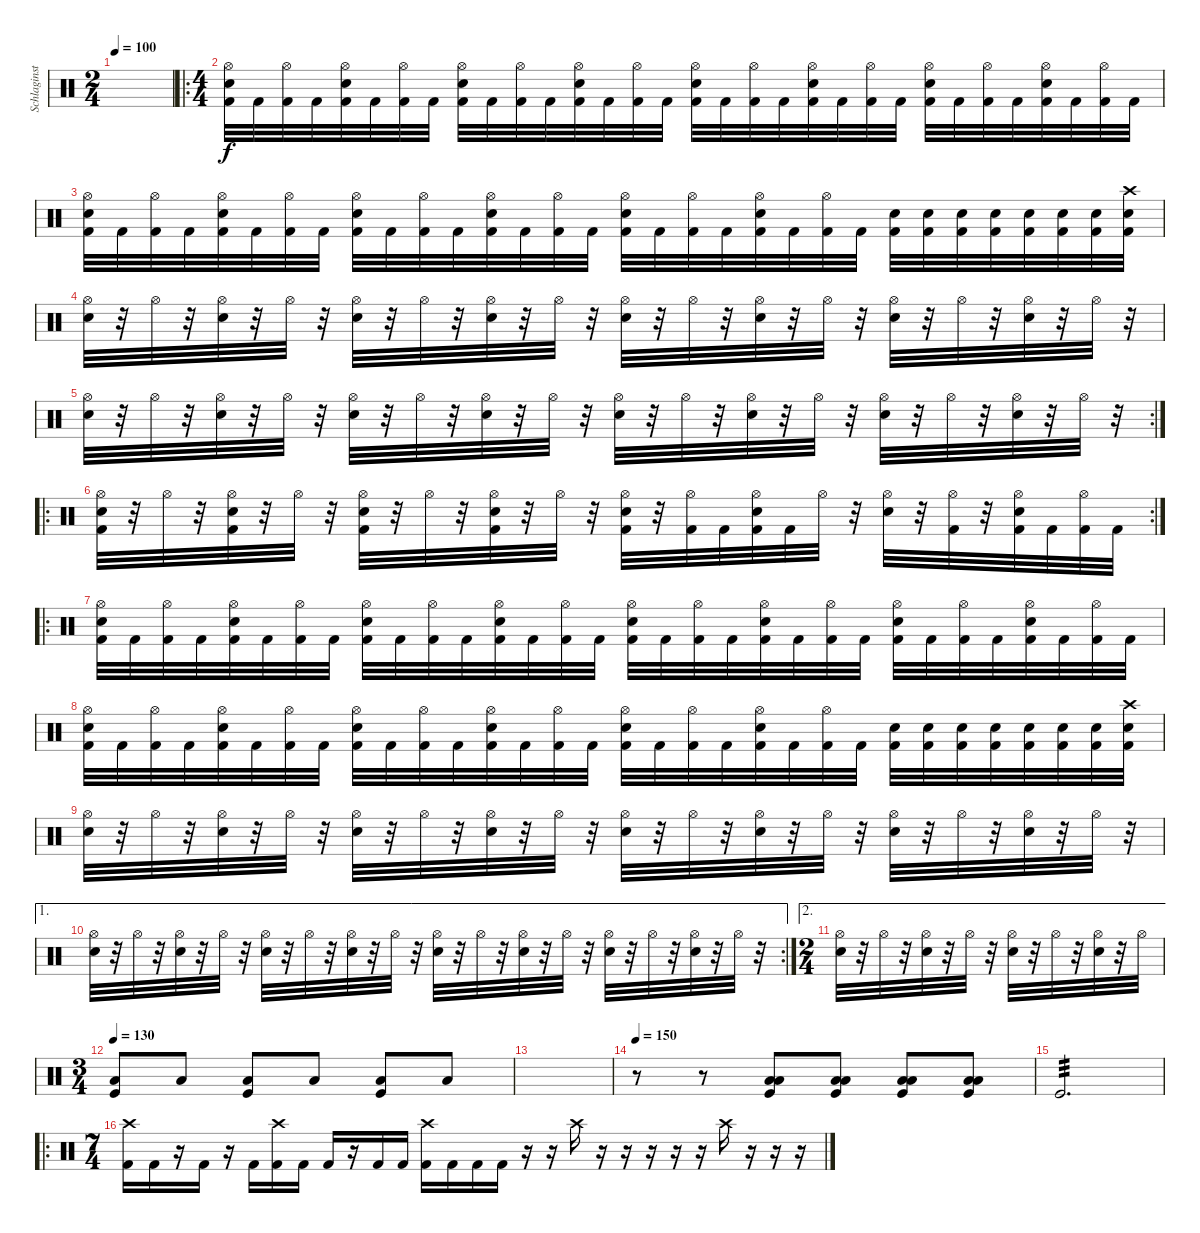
\track ("Schlaginstrumente - Auswahl" "Schlaginst") {instrument percussion}
\staff {score}
\articulation defaults
\ts (2 4)
\tempo 100
\clef neutral
\ks c
|
\ro
\ts (4 4)
("Hi-Hat (open)" "Snare (hit) 2" "Kick (hit) 2").32 "Kick (hit) 2".32 ("Hi-Hat (open)" "Kick (hit) 2").32 "Kick (hit) 2".32 ("Hi-Hat (open)" "Snare (hit) 2" "Kick (hit) 2").32 "Kick (hit) 2".32 ("Hi-Hat (open)" "Kick (hit) 2").32 "Kick (hit) 2".32 ("Hi-Hat (open)" "Snare (hit) 2" "Kick (hit) 2").32 "Kick (hit) 2".32 ("Hi-Hat (open)" "Kick (hit) 2").32 "Kick (hit) 2".32 ("Hi-Hat (open)" "Snare (hit) 2" "Kick (hit) 2").32 "Kick (hit) 2".32 ("Hi-Hat (open)" "Kick (hit) 2").32 "Kick (hit) 2".32 ("Hi-Hat (open)" "Snare (hit) 2" "Kick (hit) 2").32 "Kick (hit) 2".32 ("Hi-Hat (open)" "Kick (hit) 2").32 "Kick (hit) 2".32 ("Hi-Hat (open)" "Snare (hit) 2" "Kick (hit) 2").32 "Kick (hit) 2".32 ("Hi-Hat (open)" "Kick (hit) 2").32 "Kick (hit) 2".32 ("Hi-Hat (open)" "Snare (hit) 2" "Kick (hit) 2").32 "Kick (hit) 2".32 ("Hi-Hat (open)" "Kick (hit) 2").32 "Kick (hit) 2".32 ("Hi-Hat (open)" "Snare (hit) 2" "Kick (hit) 2").32 "Kick (hit) 2".32 ("Hi-Hat (open)" "Kick (hit) 2").32 "Kick (hit) 2".32 |
("Hi-Hat (open)" "Snare (hit) 2" "Kick (hit) 2").32 "Kick (hit) 2".32 ("Hi-Hat (open)" "Kick (hit) 2").32 "Kick (hit) 2".32 ("Hi-Hat (open)" "Snare (hit) 2" "Kick (hit) 2").32 "Kick (hit) 2".32 ("Hi-Hat (open)" "Kick (hit) 2").32 "Kick (hit) 2".32 ("Hi-Hat (open)" "Snare (hit) 2" "Kick (hit) 2").32 "Kick (hit) 2".32 ("Hi-Hat (open)" "Kick (hit) 2").32 "Kick (hit) 2".32 ("Hi-Hat (open)" "Snare (hit) 2" "Kick (hit) 2").32 "Kick (hit) 2".32 ("Hi-Hat (open)" "Kick (hit) 2").32 "Kick (hit) 2".32 ("Hi-Hat (open)" "Snare (hit) 2" "Kick (hit) 2").32 "Kick (hit) 2".32 ("Hi-Hat (open)" "Kick (hit) 2").32 "Kick (hit) 2".32 ("Hi-Hat (open)" "Snare (hit) 2" "Kick (hit) 2").32 "Kick (hit) 2".32 ("Hi-Hat (open)" "Kick (hit) 2").32 "Kick (hit) 2".32 ("Snare (hit) 2" "Kick (hit) 2").32 ("Snare (hit) 2" "Kick (hit) 2").32 ("Snare (hit) 2" "Kick (hit) 2").32 ("Snare (hit) 2" "Kick (hit) 2").32 ("Snare (hit) 2" "Kick (hit) 2").32 ("Snare (hit) 2" "Kick (hit) 2").32 ("Snare (hit) 2" "Kick (hit) 2").32 ("Crash high (hit)" "Snare (hit) 2" "Kick (hit) 2").32 |
("Hi-Hat (open)" "Snare (hit) 2").32 r.32 "Hi-Hat (open)".32 r.32 ("Hi-Hat (open)" "Snare (hit) 2").32 r.32 "Hi-Hat (open)".32 r.32 ("Hi-Hat (open)" "Snare (hit) 2").32 r.32 "Hi-Hat (open)".32 r.32 ("Hi-Hat (open)" "Snare (hit) 2").32 r.32 "Hi-Hat (open)".32 r.32 ("Hi-Hat (open)" "Snare (hit) 2").32 r.32 "Hi-Hat (open)".32 r.32 ("Hi-Hat (open)" "Snare (hit) 2").32 r.32 "Hi-Hat (open)".32 r.32 ("Hi-Hat (open)" "Snare (hit) 2").32 r.32 "Hi-Hat (open)".32 r.32 ("Hi-Hat (open)" "Snare (hit) 2").32 r.32 "Hi-Hat (open)".32 r.32 |
\rc 2
("Hi-Hat (open)" "Snare (hit) 2").32 r.32 "Hi-Hat (open)".32 r.32 ("Hi-Hat (open)" "Snare (hit) 2").32 r.32 "Hi-Hat (open)".32 r.32 ("Hi-Hat (open)" "Snare (hit) 2").32 r.32 "Hi-Hat (open)".32 r.32 ("Hi-Hat (open)" "Snare (hit) 2").32 r.32 "Hi-Hat (open)".32 r.32 ("Hi-Hat (open)" "Snare (hit) 2").32 r.32 "Hi-Hat (open)".32 r.32 ("Hi-Hat (open)" "Snare (hit) 2").32 r.32 "Hi-Hat (open)".32 r.32 ("Hi-Hat (open)" "Snare (hit) 2").32 r.32 "Hi-Hat (open)".32 r.32 ("Hi-Hat (open)" "Snare (hit) 2").32 r.32 "Hi-Hat (open)".32 r.32 |
\ro
\rc 2
("Hi-Hat (open)" "Snare (hit) 2" "Kick (hit) 2").32 r.32 "Hi-Hat (open)".32 r.32 ("Hi-Hat (open)" "Snare (hit) 2" "Kick (hit) 2").32 r.32 "Hi-Hat (open)".32 r.32 ("Hi-Hat (open)" "Snare (hit) 2" "Kick (hit) 2").32 r.32 "Hi-Hat (open)".32 r.32 ("Hi-Hat (open)" "Snare (hit) 2" "Kick (hit) 2").32 r.32 "Hi-Hat (open)".32 r.32 ("Hi-Hat (open)" "Snare (hit) 2" "Kick (hit) 2").32 r.32 ("Hi-Hat (open)" "Kick (hit) 2").32 "Kick (hit) 2".32 ("Hi-Hat (open)" "Snare (hit) 2" "Kick (hit) 2").32 "Kick (hit) 2".32 "Hi-Hat (open)".32 r.32 ("Hi-Hat (open)" "Snare (hit) 2").32 r.32 ("Hi-Hat (open)" "Kick (hit) 2").32 r.32 ("Hi-Hat (open)" "Snare (hit) 2" "Kick (hit) 2").32 "Kick (hit) 2".32 ("Hi-Hat (open)" "Kick (hit) 2").32 "Kick (hit) 2".32 |
\ro
("Hi-Hat (open)" "Snare (hit) 2" "Kick (hit) 2").32 "Kick (hit) 2".32 ("Hi-Hat (open)" "Kick (hit) 2").32 "Kick (hit) 2".32 ("Hi-Hat (open)" "Snare (hit) 2" "Kick (hit) 2").32 "Kick (hit) 2".32 ("Hi-Hat (open)" "Kick (hit) 2").32 "Kick (hit) 2".32 ("Hi-Hat (open)" "Snare (hit) 2" "Kick (hit) 2").32 "Kick (hit) 2".32 ("Hi-Hat (open)" "Kick (hit) 2").32 "Kick (hit) 2".32 ("Hi-Hat (open)" "Snare (hit) 2" "Kick (hit) 2").32 "Kick (hit) 2".32 ("Hi-Hat (open)" "Kick (hit) 2").32 "Kick (hit) 2".32 ("Hi-Hat (open)" "Snare (hit) 2" "Kick (hit) 2").32 "Kick (hit) 2".32 ("Hi-Hat (open)" "Kick (hit) 2").32 "Kick (hit) 2".32 ("Hi-Hat (open)" "Snare (hit) 2" "Kick (hit) 2").32 "Kick (hit) 2".32 ("Hi-Hat (open)" "Kick (hit) 2").32 "Kick (hit) 2".32 ("Hi-Hat (open)" "Snare (hit) 2" "Kick (hit) 2").32 "Kick (hit) 2".32 ("Hi-Hat (open)" "Kick (hit) 2").32 "Kick (hit) 2".32 ("Hi-Hat (open)" "Snare (hit) 2" "Kick (hit) 2").32 "Kick (hit) 2".32 ("Hi-Hat (open)" "Kick (hit) 2").32 "Kick (hit) 2".32 |
("Hi-Hat (open)" "Snare (hit) 2" "Kick (hit) 2").32 "Kick (hit) 2".32 ("Hi-Hat (open)" "Kick (hit) 2").32 "Kick (hit) 2".32 ("Hi-Hat (open)" "Snare (hit) 2" "Kick (hit) 2").32 "Kick (hit) 2".32 ("Hi-Hat (open)" "Kick (hit) 2").32 "Kick (hit) 2".32 ("Hi-Hat (open)" "Snare (hit) 2" "Kick (hit) 2").32 "Kick (hit) 2".32 ("Hi-Hat (open)" "Kick (hit) 2").32 "Kick (hit) 2".32 ("Hi-Hat (open)" "Snare (hit) 2" "Kick (hit) 2").32 "Kick (hit) 2".32 ("Hi-Hat (open)" "Kick (hit) 2").32 "Kick (hit) 2".32 ("Hi-Hat (open)" "Snare (hit) 2" "Kick (hit) 2").32 "Kick (hit) 2".32 ("Hi-Hat (open)" "Kick (hit) 2").32 "Kick (hit) 2".32 ("Hi-Hat (open)" "Snare (hit) 2" "Kick (hit) 2").32 "Kick (hit) 2".32 ("Hi-Hat (open)" "Kick (hit) 2").32 "Kick (hit) 2".32 ("Snare (hit) 2" "Kick (hit) 2").32 ("Snare (hit) 2" "Kick (hit) 2").32 ("Snare (hit) 2" "Kick (hit) 2").32 ("Snare (hit) 2" "Kick (hit) 2").32 ("Snare (hit) 2" "Kick (hit) 2").32 ("Snare (hit) 2" "Kick (hit) 2").32 ("Snare (hit) 2" "Kick (hit) 2").32 ("Crash high (hit)" "Snare (hit) 2" "Kick (hit) 2").32 |
("Hi-Hat (open)" "Snare (hit) 2").32 r.32 "Hi-Hat (open)".32 r.32 ("Hi-Hat (open)" "Snare (hit) 2").32 r.32 "Hi-Hat (open)".32 r.32 ("Hi-Hat (open)" "Snare (hit) 2").32 r.32 "Hi-Hat (open)".32 r.32 ("Hi-Hat (open)" "Snare (hit) 2").32 r.32 "Hi-Hat (open)".32 r.32 ("Hi-Hat (open)" "Snare (hit) 2").32 r.32 "Hi-Hat (open)".32 r.32 ("Hi-Hat (open)" "Snare (hit) 2").32 r.32 "Hi-Hat (open)".32 r.32 ("Hi-Hat (open)" "Snare (hit) 2").32 r.32 "Hi-Hat (open)".32 r.32 ("Hi-Hat (open)" "Snare (hit) 2").32 r.32 "Hi-Hat (open)".32 r.32 |
\ae 1
\rc 2
("Hi-Hat (open)" "Snare (hit) 2").32 r.32 "Hi-Hat (open)".32 r.32 ("Hi-Hat (open)" "Snare (hit) 2").32 r.32 "Hi-Hat (open)".32 r.32 ("Hi-Hat (open)" "Snare (hit) 2").32 r.32 "Hi-Hat (open)".32 r.32 ("Hi-Hat (open)" "Snare (hit) 2").32 r.32 "Hi-Hat (open)".32 r.32 ("Hi-Hat (open)" "Snare (hit) 2").32 r.32 "Hi-Hat (open)".32 r.32 ("Hi-Hat (open)" "Snare (hit) 2").32 r.32 "Hi-Hat (open)".32 r.32 ("Hi-Hat (open)" "Snare (hit) 2").32 r.32 "Hi-Hat (open)".32 r.32 ("Hi-Hat (open)" "Snare (hit) 2").32 r.32 "Hi-Hat (open)".32 r.32 |
\ae 2
\ts (2 4)
("Hi-Hat (open)" "Snare (hit) 2").32 r.32 "Hi-Hat (open)".32 r.32 ("Hi-Hat (open)" "Snare (hit) 2").32 r.32 "Hi-Hat (open)".32 r.32 ("Hi-Hat (open)" "Snare (hit) 2").32 r.32 "Hi-Hat (open)".32 r.32 ("Hi-Hat (open)" "Snare (hit) 2").32 r.32 "Hi-Hat (open)".32 |
\ts (3 4)
\tempo 130
("Kick (hit)" "Low Tom (hit)").8 "Low Floor Tom (hit)".8 ("Kick (hit)" "Low Tom (hit)").8 "Low Floor Tom (hit)".8 ("Kick (hit)" "Low Tom (hit)").8 "Low Floor Tom (hit)".8 |
|
\tempo 150
r.8 r.8 ("Low Floor Tom (hit)" "Kick (hit)" "Low Tom (hit)").8 ("Low Tom (hit)" "Kick (hit)" "Low Floor Tom (hit)").8 ("Low Floor Tom (hit)" "Kick (hit)" "Low Tom (hit)").8 ("Low Tom (hit)" "Kick (hit)" "Low Floor Tom (hit)").8 |
"Kick (hit)".2{d tp 3} |
\ro
\ts (7 4)
("Crash high (hit)" "Kick (hit) 2").16 "Kick (hit) 2".16 r.16 "Kick (hit) 2".16 r.16 "Kick (hit) 2".16 ("Crash high (hit)" "Kick (hit) 2").16 "Kick (hit) 2".16 "Kick (hit) 2".16 r.16 "Kick (hit) 2".16 "Kick (hit) 2".16 ("Crash high (hit)" "Kick (hit) 2").16 "Kick (hit) 2".16 "Kick (hit) 2".16 "Kick (hit) 2".16 r.16 r.16 "Crash high (hit)".16 r.16 r.16 r.16 r.16 r.16 "Crash high (hit)".16 r.16 r.16 r.16
